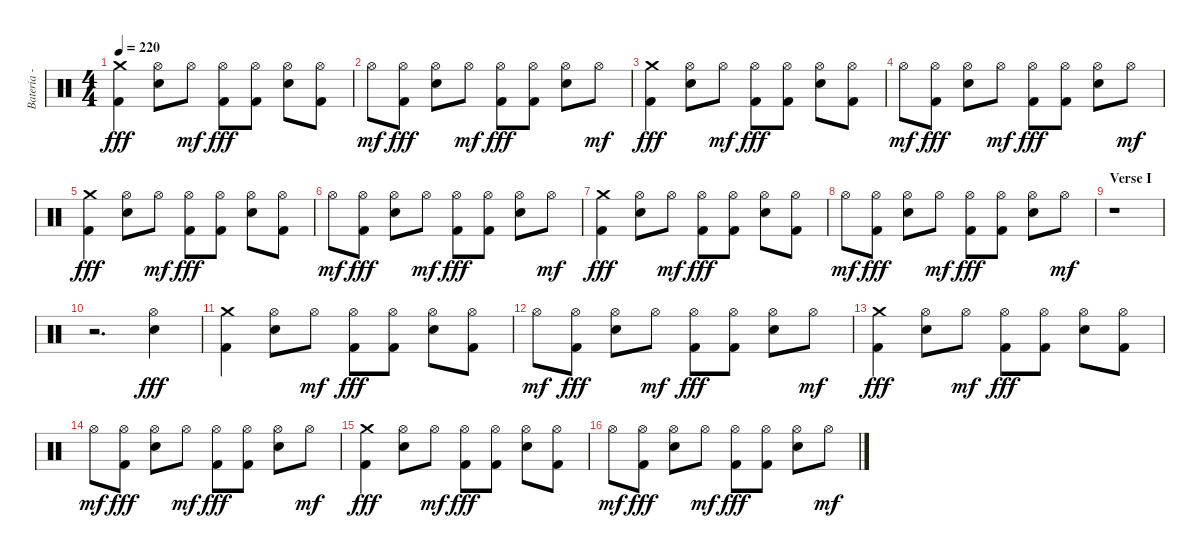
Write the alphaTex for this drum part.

\track ("Bateria - Larzon" "Bateria - ") {instrument percussion}
\staff {score}
\articulation defaults
\ts (4 4)
\tempo 220
\clef neutral
\ks c
("Crash medium (hit)" "Kick (hit) 2").4{dy fff} ("Hi-Hat (open)" "Electric Snare (hit)").8 "Hi-Hat (open)".8{dy mf} ("Hi-Hat (open)" "Kick (hit) 2").8{dy fff} ("Hi-Hat (open)" "Kick (hit) 2").8 ("Hi-Hat (open)" "Electric Snare (hit)").8 ("Hi-Hat (open)" "Kick (hit) 2").8 |
"Hi-Hat (open)".8{dy mf} ("Hi-Hat (open)" "Kick (hit) 2").8{dy fff} ("Hi-Hat (open)" "Electric Snare (hit)").8 "Hi-Hat (open)".8{dy mf} ("Hi-Hat (open)" "Kick (hit) 2").8{dy fff} ("Hi-Hat (open)" "Kick (hit) 2").8 ("Hi-Hat (open)" "Electric Snare (hit)").8 "Hi-Hat (open)".8{dy mf} |
("Crash medium (hit)" "Kick (hit) 2").4{dy fff} ("Hi-Hat (open)" "Electric Snare (hit)").8 "Hi-Hat (open)".8{dy mf} ("Hi-Hat (open)" "Kick (hit) 2").8{dy fff} ("Hi-Hat (open)" "Kick (hit) 2").8 ("Hi-Hat (open)" "Electric Snare (hit)").8 ("Hi-Hat (open)" "Kick (hit) 2").8 |
"Hi-Hat (open)".8{dy mf} ("Hi-Hat (open)" "Kick (hit) 2").8{dy fff} ("Hi-Hat (open)" "Electric Snare (hit)").8 "Hi-Hat (open)".8{dy mf} ("Hi-Hat (open)" "Kick (hit) 2").8{dy fff} ("Hi-Hat (open)" "Kick (hit) 2").8 ("Hi-Hat (open)" "Electric Snare (hit)").8 "Hi-Hat (open)".8{dy mf} |
("Crash medium (hit)" "Kick (hit) 2").4{dy fff} ("Hi-Hat (open)" "Electric Snare (hit)").8 "Hi-Hat (open)".8{dy mf} ("Hi-Hat (open)" "Kick (hit) 2").8{dy fff} ("Hi-Hat (open)" "Kick (hit) 2").8 ("Hi-Hat (open)" "Electric Snare (hit)").8 ("Hi-Hat (open)" "Kick (hit) 2").8 |
"Hi-Hat (open)".8{dy mf} ("Hi-Hat (open)" "Kick (hit) 2").8{dy fff} ("Hi-Hat (open)" "Electric Snare (hit)").8 "Hi-Hat (open)".8{dy mf} ("Hi-Hat (open)" "Kick (hit) 2").8{dy fff} ("Hi-Hat (open)" "Kick (hit) 2").8 ("Hi-Hat (open)" "Electric Snare (hit)").8 "Hi-Hat (open)".8{dy mf} |
("Crash medium (hit)" "Kick (hit) 2").4{dy fff} ("Hi-Hat (open)" "Electric Snare (hit)").8 "Hi-Hat (open)".8{dy mf} ("Hi-Hat (open)" "Kick (hit) 2").8{dy fff} ("Hi-Hat (open)" "Kick (hit) 2").8 ("Hi-Hat (open)" "Electric Snare (hit)").8 ("Hi-Hat (open)" "Kick (hit) 2").8 |
"Hi-Hat (open)".8{dy mf} ("Hi-Hat (open)" "Kick (hit) 2").8{dy fff} ("Hi-Hat (open)" "Electric Snare (hit)").8 "Hi-Hat (open)".8{dy mf} ("Hi-Hat (open)" "Kick (hit) 2").8{dy fff} ("Hi-Hat (open)" "Kick (hit) 2").8 ("Hi-Hat (open)" "Electric Snare (hit)").8 "Hi-Hat (open)".8{dy mf} |
\section ("" "Verse I")
r.1 |
r.2{d} ("Hi-Hat (open)" "Electric Snare (hit)").4{dy fff} |
("Crash medium (hit)" "Kick (hit) 2").4 ("Hi-Hat (open)" "Electric Snare (hit)").8 "Hi-Hat (open)".8{dy mf} ("Hi-Hat (open)" "Kick (hit) 2").8{dy fff} ("Hi-Hat (open)" "Kick (hit) 2").8 ("Hi-Hat (open)" "Electric Snare (hit)").8 ("Hi-Hat (open)" "Kick (hit) 2").8 |
"Hi-Hat (open)".8{dy mf} ("Hi-Hat (open)" "Kick (hit) 2").8{dy fff} ("Hi-Hat (open)" "Electric Snare (hit)").8 "Hi-Hat (open)".8{dy mf} ("Hi-Hat (open)" "Kick (hit) 2").8{dy fff} ("Hi-Hat (open)" "Kick (hit) 2").8 ("Hi-Hat (open)" "Electric Snare (hit)").8 "Hi-Hat (open)".8{dy mf} |
("Crash medium (hit)" "Kick (hit) 2").4{dy fff} ("Hi-Hat (open)" "Electric Snare (hit)").8 "Hi-Hat (open)".8{dy mf} ("Hi-Hat (open)" "Kick (hit) 2").8{dy fff} ("Hi-Hat (open)" "Kick (hit) 2").8 ("Hi-Hat (open)" "Electric Snare (hit)").8 ("Hi-Hat (open)" "Kick (hit) 2").8 |
"Hi-Hat (open)".8{dy mf} ("Hi-Hat (open)" "Kick (hit) 2").8{dy fff} ("Hi-Hat (open)" "Electric Snare (hit)").8 "Hi-Hat (open)".8{dy mf} ("Hi-Hat (open)" "Kick (hit) 2").8{dy fff} ("Hi-Hat (open)" "Kick (hit) 2").8 ("Hi-Hat (open)" "Electric Snare (hit)").8 "Hi-Hat (open)".8{dy mf} |
("Crash medium (hit)" "Kick (hit) 2").4{dy fff} ("Hi-Hat (open)" "Electric Snare (hit)").8 "Hi-Hat (open)".8{dy mf} ("Hi-Hat (open)" "Kick (hit) 2").8{dy fff} ("Hi-Hat (open)" "Kick (hit) 2").8 ("Hi-Hat (open)" "Electric Snare (hit)").8 ("Hi-Hat (open)" "Kick (hit) 2").8 |
"Hi-Hat (open)".8{dy mf} ("Hi-Hat (open)" "Kick (hit) 2").8{dy fff} ("Hi-Hat (open)" "Electric Snare (hit)").8 "Hi-Hat (open)".8{dy mf} ("Hi-Hat (open)" "Kick (hit) 2").8{dy fff} ("Hi-Hat (open)" "Kick (hit) 2").8 ("Hi-Hat (open)" "Electric Snare (hit)").8 "Hi-Hat (open)".8{dy mf}
